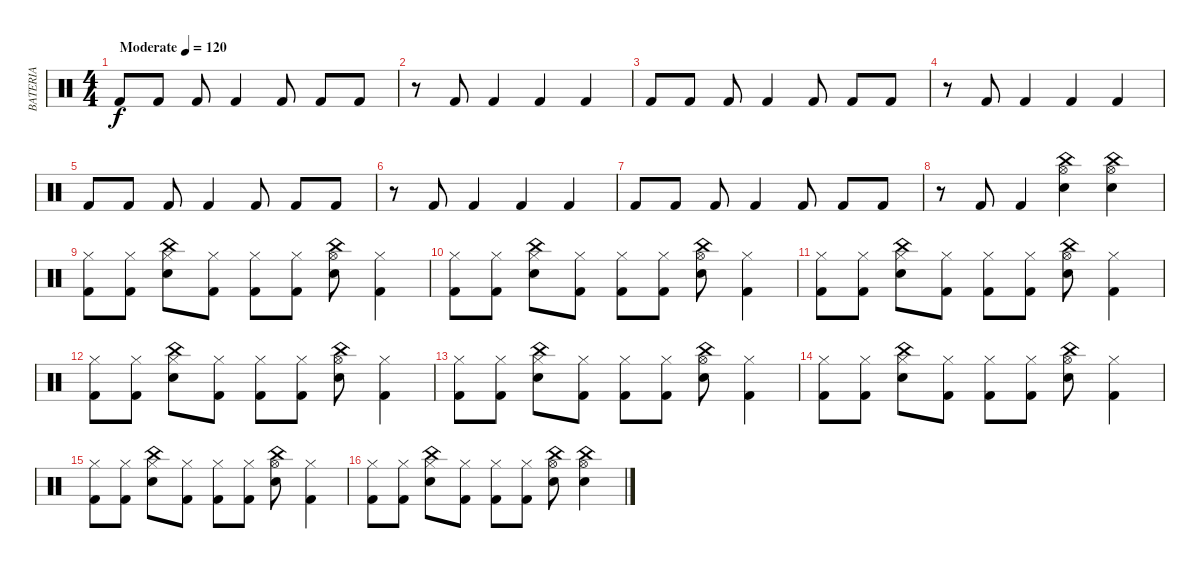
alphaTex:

\track ("BATERIA" "BATERIA") {instrument percussion}
\staff {score}
\articulation defaults
\ts (4 4)
\tempo (120 "Moderate")
\clef neutral
\ks c "Kick (hit) 2".8{dy f} "Kick (hit) 2".8 "Kick (hit) 2".8 "Kick (hit) 2".4 "Kick (hit) 2".8 "Kick (hit) 2".8 "Kick (hit) 2".8
|
r.8 "Kick (hit) 2".8 "Kick (hit) 2".4 "Kick (hit) 2".4 "Kick (hit) 2".4 |
"Kick (hit) 2".8 "Kick (hit) 2".8 "Kick (hit) 2".8 "Kick (hit) 2".4 "Kick (hit) 2".8 "Kick (hit) 2".8 "Kick (hit) 2".8 |
r.8 "Kick (hit) 2".8 "Kick (hit) 2".4 "Kick (hit) 2".4 "Kick (hit) 2".4 |
"Kick (hit) 2".8 "Kick (hit) 2".8 "Kick (hit) 2".8 "Kick (hit) 2".4 "Kick (hit) 2".8 "Kick (hit) 2".8 "Kick (hit) 2".8 |
r.8 "Kick (hit) 2".8 "Kick (hit) 2".4 "Kick (hit) 2".4 "Kick (hit) 2".4 |
"Kick (hit) 2".8 "Kick (hit) 2".8 "Kick (hit) 2".8 "Kick (hit) 2".4 "Kick (hit) 2".8 "Kick (hit) 2".8 "Kick (hit) 2".8 |
r.8 "Kick (hit) 2".8 "Kick (hit) 2".4 ("Snare (hit) 2" "Hi-Hat (open)" "China (hit)").4 ("Snare (hit) 2" "Hi-Hat (open)" "China (hit)").4 |
("Hi-Hat (closed)" "Kick (hit) 2").8 ("Hi-Hat (closed)" "Kick (hit) 2").8 ("Snare (hit) 2" "Hi-Hat (closed)" "China (hit)").8 ("Kick (hit) 2" "Hi-Hat (closed)").8 ("Kick (hit) 2" "Hi-Hat (closed)").8 ("Kick (hit) 2" "Hi-Hat (closed)").8 ("Snare (hit) 2" "Hi-Hat (open)" "China (hit)").8 ("Kick (hit) 2" "Hi-Hat (closed)").4 |
("Hi-Hat (closed)" "Kick (hit) 2").8 ("Hi-Hat (closed)" "Kick (hit) 2").8 ("Snare (hit) 2" "Hi-Hat (closed)" "China (hit)").8 ("Kick (hit) 2" "Hi-Hat (closed)").8 ("Kick (hit) 2" "Hi-Hat (closed)").8 ("Kick (hit) 2" "Hi-Hat (closed)").8 ("Snare (hit) 2" "Hi-Hat (open)" "China (hit)").8 ("Kick (hit) 2" "Hi-Hat (closed)").4 |
("Hi-Hat (closed)" "Kick (hit) 2").8 ("Hi-Hat (closed)" "Kick (hit) 2").8 ("Snare (hit) 2" "Hi-Hat (closed)" "China (hit)").8 ("Kick (hit) 2" "Hi-Hat (closed)").8 ("Kick (hit) 2" "Hi-Hat (closed)").8 ("Kick (hit) 2" "Hi-Hat (closed)").8 ("Snare (hit) 2" "Hi-Hat (open)" "China (hit)").8 ("Kick (hit) 2" "Hi-Hat (closed)").4 |
("Hi-Hat (closed)" "Kick (hit) 2").8 ("Hi-Hat (closed)" "Kick (hit) 2").8 ("Snare (hit) 2" "Hi-Hat (closed)" "China (hit)").8 ("Kick (hit) 2" "Hi-Hat (closed)").8 ("Kick (hit) 2" "Hi-Hat (closed)").8 ("Kick (hit) 2" "Hi-Hat (closed)").8 ("Snare (hit) 2" "Hi-Hat (open)" "China (hit)").8 ("Kick (hit) 2" "Hi-Hat (closed)").4 |
("Hi-Hat (closed)" "Kick (hit) 2").8 ("Hi-Hat (closed)" "Kick (hit) 2").8 ("Snare (hit) 2" "Hi-Hat (closed)" "China (hit)").8 ("Kick (hit) 2" "Hi-Hat (closed)").8 ("Kick (hit) 2" "Hi-Hat (closed)").8 ("Kick (hit) 2" "Hi-Hat (closed)").8 ("Snare (hit) 2" "Hi-Hat (open)" "China (hit)").8 ("Kick (hit) 2" "Hi-Hat (closed)").4 |
("Hi-Hat (closed)" "Kick (hit) 2").8 ("Hi-Hat (closed)" "Kick (hit) 2").8 ("Snare (hit) 2" "Hi-Hat (closed)" "China (hit)").8 ("Kick (hit) 2" "Hi-Hat (closed)").8 ("Kick (hit) 2" "Hi-Hat (closed)").8 ("Kick (hit) 2" "Hi-Hat (closed)").8 ("Snare (hit) 2" "Hi-Hat (open)" "China (hit)").8 ("Kick (hit) 2" "Hi-Hat (closed)").4 |
("Hi-Hat (closed)" "Kick (hit) 2").8 ("Hi-Hat (closed)" "Kick (hit) 2").8 ("Snare (hit) 2" "Hi-Hat (closed)" "China (hit)").8 ("Kick (hit) 2" "Hi-Hat (closed)").8 ("Kick (hit) 2" "Hi-Hat (closed)").8 ("Kick (hit) 2" "Hi-Hat (closed)").8 ("Snare (hit) 2" "Hi-Hat (open)" "China (hit)").8 ("Kick (hit) 2" "Hi-Hat (closed)").4 |
("Hi-Hat (closed)" "Kick (hit) 2").8 ("Hi-Hat (closed)" "Kick (hit) 2").8 ("Snare (hit) 2" "Hi-Hat (closed)" "China (hit)").8 ("Kick (hit) 2" "Hi-Hat (closed)").8 ("Kick (hit) 2" "Hi-Hat (closed)").8 ("Kick (hit) 2" "Hi-Hat (closed)").8 ("Snare (hit) 2" "Hi-Hat (open)" "China (hit)").8 ("Snare (hit) 2" "Hi-Hat (open)" "China (hit)").4
